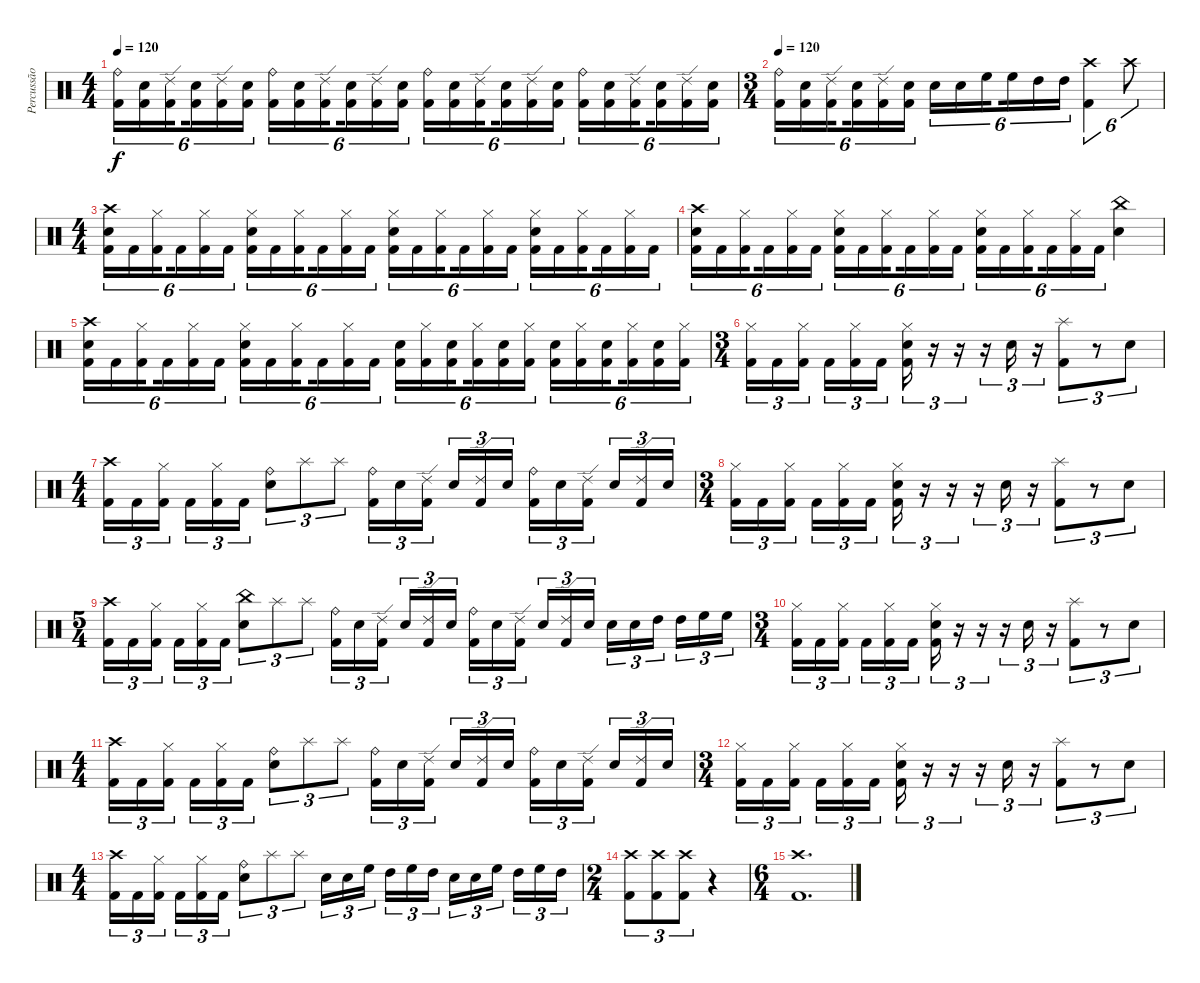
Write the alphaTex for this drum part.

\track ("Percussão" "Percussão") {instrument percussion}
\staff {score}
\articulation defaults
\ts (4 4)
\tempo 120
\clef neutral
\ks c
("Ride (bell)" "Kick (hit) 2").16{tu (6 4) dy f} ("Electric Snare (hit)" "Kick (hit) 2").16{tu (6 4)} ("Ride (edge) 2" "Kick (hit) 2").16{tu (6 4) beam splitsecondary} ("Electric Snare (hit)" "Kick (hit) 2").16{tu (6 4)} ("Ride (edge) 2" "Kick (hit) 2").16{tu (6 4)} ("Electric Snare (hit)" "Kick (hit) 2").16{tu (6 4)} ("Ride (bell)" "Kick (hit) 2").16{tu (6 4)} ("Electric Snare (hit)" "Kick (hit) 2").16{tu (6 4)} ("Ride (edge) 2" "Kick (hit) 2").16{tu (6 4) beam splitsecondary} ("Electric Snare (hit)" "Kick (hit) 2").16{tu (6 4)} ("Ride (edge) 2" "Kick (hit) 2").16{tu (6 4)} ("Electric Snare (hit)" "Kick (hit) 2").16{tu (6 4)} ("Ride (bell)" "Kick (hit) 2").16{tu (6 4)} ("Electric Snare (hit)" "Kick (hit) 2").16{tu (6 4)} ("Ride (edge) 2" "Kick (hit) 2").16{tu (6 4) beam splitsecondary} ("Electric Snare (hit)" "Kick (hit) 2").16{tu (6 4)} ("Ride (edge) 2" "Kick (hit) 2").16{tu (6 4)} ("Electric Snare (hit)" "Kick (hit) 2").16{tu (6 4)} ("Ride (bell)" "Kick (hit) 2").16{tu (6 4)} ("Electric Snare (hit)" "Kick (hit) 2").16{tu (6 4)} ("Ride (edge) 2" "Kick (hit) 2").16{tu (6 4) beam splitsecondary} ("Electric Snare (hit)" "Kick (hit) 2").16{tu (6 4)} ("Ride (edge) 2" "Kick (hit) 2").16{tu (6 4)} ("Electric Snare (hit)" "Kick (hit) 2").16{tu (6 4)} |
\ts (3 4)
\tempo 120
("Ride (bell)" "Kick (hit) 2").16{tu (6 4)} ("Electric Snare (hit)" "Kick (hit) 2").16{tu (6 4)} ("Ride (edge) 2" "Kick (hit) 2").16{tu (6 4) beam splitsecondary} ("Electric Snare (hit)" "Kick (hit) 2").16{tu (6 4)} ("Ride (edge) 2" "Kick (hit) 2").16{tu (6 4)} ("Electric Snare (hit)" "Kick (hit) 2").16{tu (6 4)} "Electric Snare (hit)".16{tu (6 4)} "Electric Snare (hit)".16{tu (6 4)} "High Floor Tom (hit)".16{tu (6 4) beam splitsecondary} "High Floor Tom (hit)".16{tu (6 4)} "High Tom (hit)".16{tu (6 4)} "High Tom (hit)".16{tu (6 4)} ("Crash high (hit)" "Kick (hit) 2").4{tu (6 4)} "Crash high (hit)".8{tu (6 4)} |
\ts (4 4)
("Crash high (hit)" "Electric Snare (hit)" "Kick (hit) 2").16{tu (6 4)} "Kick (hit) 2".16{tu (6 4)} ("Hi-Hat (closed)" "Kick (hit) 2").16{tu (6 4) beam splitsecondary} "Kick (hit) 2".16{tu (6 4)} ("Hi-Hat (closed)" "Kick (hit) 2").16{tu (6 4)} "Kick (hit) 2".16{tu (6 4)} ("Hi-Hat (closed)" "Electric Snare (hit)" "Kick (hit) 2").16{tu (6 4)} "Kick (hit) 2".16{tu (6 4)} ("Hi-Hat (closed)" "Kick (hit) 2").16{tu (6 4) beam splitsecondary} "Kick (hit) 2".16{tu (6 4)} ("Hi-Hat (closed)" "Kick (hit) 2").16{tu (6 4)} "Kick (hit) 2".16{tu (6 4)} ("Hi-Hat (closed)" "Electric Snare (hit)" "Kick (hit) 2").16{tu (6 4)} "Kick (hit) 2".16{tu (6 4)} ("Hi-Hat (closed)" "Kick (hit) 2").16{tu (6 4) beam splitsecondary} "Kick (hit) 2".16{tu (6 4)} ("Hi-Hat (closed)" "Kick (hit) 2").16{tu (6 4)} "Kick (hit) 2".16{tu (6 4)} ("Hi-Hat (closed)" "Electric Snare (hit)" "Kick (hit) 2").16{tu (6 4)} "Kick (hit) 2".16{tu (6 4)} ("Hi-Hat (closed)" "Kick (hit) 2").16{tu (6 4) beam splitsecondary} "Kick (hit) 2".16{tu (6 4)} ("Hi-Hat (closed)" "Kick (hit) 2").16{tu (6 4)} "Kick (hit) 2".16{tu (6 4)} |
("Crash high (hit)" "Electric Snare (hit)" "Kick (hit) 2").16{tu (6 4)} "Kick (hit) 2".16{tu (6 4)} ("Hi-Hat (closed)" "Kick (hit) 2").16{tu (6 4) beam splitsecondary} "Kick (hit) 2".16{tu (6 4)} ("Hi-Hat (closed)" "Kick (hit) 2").16{tu (6 4)} "Kick (hit) 2".16{tu (6 4)} ("Hi-Hat (closed)" "Electric Snare (hit)" "Kick (hit) 2").16{tu (6 4)} "Kick (hit) 2".16{tu (6 4)} ("Hi-Hat (closed)" "Kick (hit) 2").16{tu (6 4) beam splitsecondary} "Kick (hit) 2".16{tu (6 4)} ("Hi-Hat (closed)" "Kick (hit) 2").16{tu (6 4)} "Kick (hit) 2".16{tu (6 4)} ("Hi-Hat (closed)" "Electric Snare (hit)" "Kick (hit) 2").16{tu (6 4)} "Kick (hit) 2".16{tu (6 4)} ("Hi-Hat (closed)" "Kick (hit) 2").16{tu (6 4) beam splitsecondary} "Kick (hit) 2".16{tu (6 4)} ("Hi-Hat (closed)" "Kick (hit) 2").16{tu (6 4)} "Kick (hit) 2".16{tu (6 4)} ("China (hit)" "Electric Snare (hit)").4 |
("Crash high (hit)" "Electric Snare (hit)" "Kick (hit) 2").16{tu (6 4)} "Kick (hit) 2".16{tu (6 4)} ("Hi-Hat (closed)" "Kick (hit) 2").16{tu (6 4) beam splitsecondary} "Kick (hit) 2".16{tu (6 4)} ("Hi-Hat (closed)" "Kick (hit) 2").16{tu (6 4)} "Kick (hit) 2".16{tu (6 4)} ("Hi-Hat (closed)" "Electric Snare (hit)" "Kick (hit) 2").16{tu (6 4)} "Kick (hit) 2".16{tu (6 4)} ("Hi-Hat (closed)" "Kick (hit) 2").16{tu (6 4) beam splitsecondary} "Kick (hit) 2".16{tu (6 4)} ("Hi-Hat (closed)" "Kick (hit) 2").16{tu (6 4)} "Kick (hit) 2".16{tu (6 4)} ("Electric Snare (hit)" "Kick (hit) 2").16{tu (6 4)} ("Hi-Hat (closed)" "Kick (hit) 2").16{tu (6 4)} ("Electric Snare (hit)" "Kick (hit) 2").16{tu (6 4) beam splitsecondary} ("Hi-Hat (closed)" "Kick (hit) 2").16{tu (6 4)} ("Electric Snare (hit)" "Kick (hit) 2").16{tu (6 4)} ("Hi-Hat (closed)" "Kick (hit) 2").16{tu (6 4)} ("Electric Snare (hit)" "Kick (hit) 2").16{tu (6 4)} ("Hi-Hat (closed)" "Kick (hit) 2").16{tu (6 4)} ("Electric Snare (hit)" "Kick (hit) 2").16{tu (6 4) beam splitsecondary} ("Hi-Hat (closed)" "Kick (hit) 2").16{tu (6 4)} ("Electric Snare (hit)" "Kick (hit) 2").16{tu (6 4)} ("Hi-Hat (closed)" "Kick (hit) 2").16{tu (6 4)} |
\ts (3 4)
("Hi-Hat (closed)" "Kick (hit) 2").16{tu (3 2)} "Kick (hit) 2".16{tu (3 2)} ("Hi-Hat (closed)" "Kick (hit) 2").16{tu (3 2) beam splitsecondary} "Kick (hit) 2".16{tu (3 2)} ("Hi-Hat (closed)" "Kick (hit) 2").16{tu (3 2)} "Kick (hit) 2".16{tu (3 2)} ("Hi-Hat (closed)" "Electric Snare (hit)" "Kick (hit) 2").16{tu (3 2)} r.16{tu (3 2)} r.16{tu (3 2)} r.16{tu (3 2)} "Electric Snare (hit)".16{tu (3 2)} r.16{tu (3 2)} ("Splash (hit)" "Kick (hit) 2").8{tu (3 2)} r.8{tu (3 2)} "Electric Snare (hit)".8{tu (3 2)} |
\ts (4 4)
("Crash high (hit)" "Kick (hit) 2").16{tu (3 2)} "Kick (hit) 2".16{tu (3 2)} ("Hi-Hat (closed)" "Kick (hit) 2").16{tu (3 2) beam splitsecondary} "Kick (hit) 2".16{tu (3 2)} ("Hi-Hat (closed)" "Kick (hit) 2").16{tu (3 2)} "Kick (hit) 2".16{tu (3 2)} ("Ride (bell)" "Electric Snare (hit)").8{tu (3 2)} "Splash (hit)".8{tu (3 2)} "Splash (hit)".8{tu (3 2)} ("Ride (bell)" "Kick (hit) 2").16{tu (3 2)} "Electric Snare (hit)".16{tu (3 2)} ("Ride (edge) 2" "Kick (hit) 2").16{tu (3 2) beam splitsecondary} "Electric Snare (hit)".16{tu (3 2)} ("Ride (edge) 2" "Kick (hit) 2").16{tu (3 2)} "Electric Snare (hit)".16{tu (3 2)} ("Ride (bell)" "Kick (hit) 2").16{tu (3 2)} "Electric Snare (hit)".16{tu (3 2)} ("Ride (edge) 2" "Kick (hit) 2").16{tu (3 2) beam splitsecondary} "Electric Snare (hit)".16{tu (3 2)} ("Ride (edge) 2" "Kick (hit) 2").16{tu (3 2)} "Electric Snare (hit)".16{tu (3 2)} |
\ts (3 4)
("Hi-Hat (closed)" "Kick (hit) 2").16{tu (3 2)} "Kick (hit) 2".16{tu (3 2)} ("Hi-Hat (closed)" "Kick (hit) 2").16{tu (3 2) beam splitsecondary} "Kick (hit) 2".16{tu (3 2)} ("Hi-Hat (closed)" "Kick (hit) 2").16{tu (3 2)} "Kick (hit) 2".16{tu (3 2)} ("Hi-Hat (closed)" "Electric Snare (hit)" "Kick (hit) 2").16{tu (3 2)} r.16{tu (3 2)} r.16{tu (3 2)} r.16{tu (3 2)} "Electric Snare (hit)".16{tu (3 2)} r.16{tu (3 2)} ("Splash (hit)" "Kick (hit) 2").8{tu (3 2)} r.8{tu (3 2)} "Electric Snare (hit)".8{tu (3 2)} |
\ts (5 4)
("Crash high (hit)" "Kick (hit) 2").16{tu (3 2)} "Kick (hit) 2".16{tu (3 2)} ("Hi-Hat (closed)" "Kick (hit) 2").16{tu (3 2) beam splitsecondary} "Kick (hit) 2".16{tu (3 2)} ("Hi-Hat (closed)" "Kick (hit) 2").16{tu (3 2)} "Kick (hit) 2".16{tu (3 2)} ("China (hit)" "Electric Snare (hit)").8{tu (3 2)} "Splash (hit)".8{tu (3 2)} "Splash (hit)".8{tu (3 2)} ("Ride (bell)" "Kick (hit) 2").16{tu (3 2)} "Electric Snare (hit)".16{tu (3 2)} ("Ride (edge) 2" "Kick (hit) 2").16{tu (3 2) beam splitsecondary} "Electric Snare (hit)".16{tu (3 2)} ("Ride (edge) 2" "Kick (hit) 2").16{tu (3 2)} "Electric Snare (hit)".16{tu (3 2)} ("Ride (bell)" "Kick (hit) 2").16{tu (3 2)} "Electric Snare (hit)".16{tu (3 2)} ("Ride (edge) 2" "Kick (hit) 2").16{tu (3 2) beam splitsecondary} "Electric Snare (hit)".16{tu (3 2)} ("Ride (edge) 2" "Kick (hit) 2").16{tu (3 2)} "Electric Snare (hit)".16{tu (3 2)} "Electric Snare (hit)".16{tu (3 2)} "Electric Snare (hit)".16{tu (3 2)} "High Tom (hit)".16{tu (3 2) beam splitsecondary} "High Tom (hit)".16{tu (3 2)} "High Floor Tom (hit)".16{tu (3 2)} "High Floor Tom (hit)".16{tu (3 2)} |
\ts (3 4)
("Hi-Hat (closed)" "Kick (hit) 2").16{tu (3 2)} "Kick (hit) 2".16{tu (3 2)} ("Hi-Hat (closed)" "Kick (hit) 2").16{tu (3 2) beam splitsecondary} "Kick (hit) 2".16{tu (3 2)} ("Hi-Hat (closed)" "Kick (hit) 2").16{tu (3 2)} "Kick (hit) 2".16{tu (3 2)} ("Hi-Hat (closed)" "Electric Snare (hit)" "Kick (hit) 2").16{tu (3 2)} r.16{tu (3 2)} r.16{tu (3 2)} r.16{tu (3 2)} "Electric Snare (hit)".16{tu (3 2)} r.16{tu (3 2)} ("Splash (hit)" "Kick (hit) 2").8{tu (3 2)} r.8{tu (3 2)} "Electric Snare (hit)".8{tu (3 2)} |
\ts (4 4)
("Crash high (hit)" "Kick (hit) 2").16{tu (3 2)} "Kick (hit) 2".16{tu (3 2)} ("Hi-Hat (closed)" "Kick (hit) 2").16{tu (3 2) beam splitsecondary} "Kick (hit) 2".16{tu (3 2)} ("Hi-Hat (closed)" "Kick (hit) 2").16{tu (3 2)} "Kick (hit) 2".16{tu (3 2)} ("Ride (bell)" "Electric Snare (hit)").8{tu (3 2)} "Splash (hit)".8{tu (3 2)} "Splash (hit)".8{tu (3 2)} ("Ride (bell)" "Kick (hit) 2").16{tu (3 2)} "Electric Snare (hit)".16{tu (3 2)} ("Ride (edge) 2" "Kick (hit) 2").16{tu (3 2) beam splitsecondary} "Electric Snare (hit)".16{tu (3 2)} ("Ride (edge) 2" "Kick (hit) 2").16{tu (3 2)} "Electric Snare (hit)".16{tu (3 2)} ("Ride (bell)" "Kick (hit) 2").16{tu (3 2)} "Electric Snare (hit)".16{tu (3 2)} ("Ride (edge) 2" "Kick (hit) 2").16{tu (3 2) beam splitsecondary} "Electric Snare (hit)".16{tu (3 2)} ("Ride (edge) 2" "Kick (hit) 2").16{tu (3 2)} "Electric Snare (hit)".16{tu (3 2)} |
\ts (3 4)
("Hi-Hat (closed)" "Kick (hit) 2").16{tu (3 2)} "Kick (hit) 2".16{tu (3 2)} ("Hi-Hat (closed)" "Kick (hit) 2").16{tu (3 2) beam splitsecondary} "Kick (hit) 2".16{tu (3 2)} ("Hi-Hat (closed)" "Kick (hit) 2").16{tu (3 2)} "Kick (hit) 2".16{tu (3 2)} ("Hi-Hat (closed)" "Electric Snare (hit)" "Kick (hit) 2").16{tu (3 2)} r.16{tu (3 2)} r.16{tu (3 2)} r.16{tu (3 2)} "Electric Snare (hit)".16{tu (3 2)} r.16{tu (3 2)} ("Splash (hit)" "Kick (hit) 2").8{tu (3 2)} r.8{tu (3 2)} "Electric Snare (hit)".8{tu (3 2)} |
\ts (4 4)
("Crash high (hit)" "Kick (hit) 2").16{tu (3 2)} "Kick (hit) 2".16{tu (3 2)} ("Hi-Hat (closed)" "Kick (hit) 2").16{tu (3 2) beam splitsecondary} "Kick (hit) 2".16{tu (3 2)} ("Hi-Hat (closed)" "Kick (hit) 2").16{tu (3 2)} "Kick (hit) 2".16{tu (3 2)} ("Ride (bell)" "Electric Snare (hit)").8{tu (3 2)} "Splash (hit)".8{tu (3 2)} "Splash (hit)".8{tu (3 2)} "Electric Snare (hit)".16{tu (3 2)} "Electric Snare (hit)".16{tu (3 2)} "High Floor Tom (hit)".16{tu (3 2) beam splitsecondary} "High Tom (hit)".16{tu (3 2)} "High Floor Tom (hit)".16{tu (3 2)} "High Tom (hit)".16{tu (3 2)} "Electric Snare (hit)".16{tu (3 2)} "Electric Snare (hit)".16{tu (3 2)} "High Floor Tom (hit)".16{tu (3 2) beam splitsecondary} "High Tom (hit)".16{tu (3 2)} "High Floor Tom (hit)".16{tu (3 2)} "High Tom (hit)".16{tu (3 2)} |
\ts (2 4)
("Crash high (hit)" "Kick (hit) 2").8{tu (3 2)} ("Crash high (hit)" "Kick (hit) 2").8{tu (3 2)} ("Crash high (hit)" "Kick (hit) 2").8{tu (3 2)} r.4 |
\ts (6 4)
("Crash high (hit)" "Kick (hit) 2").1{d}
